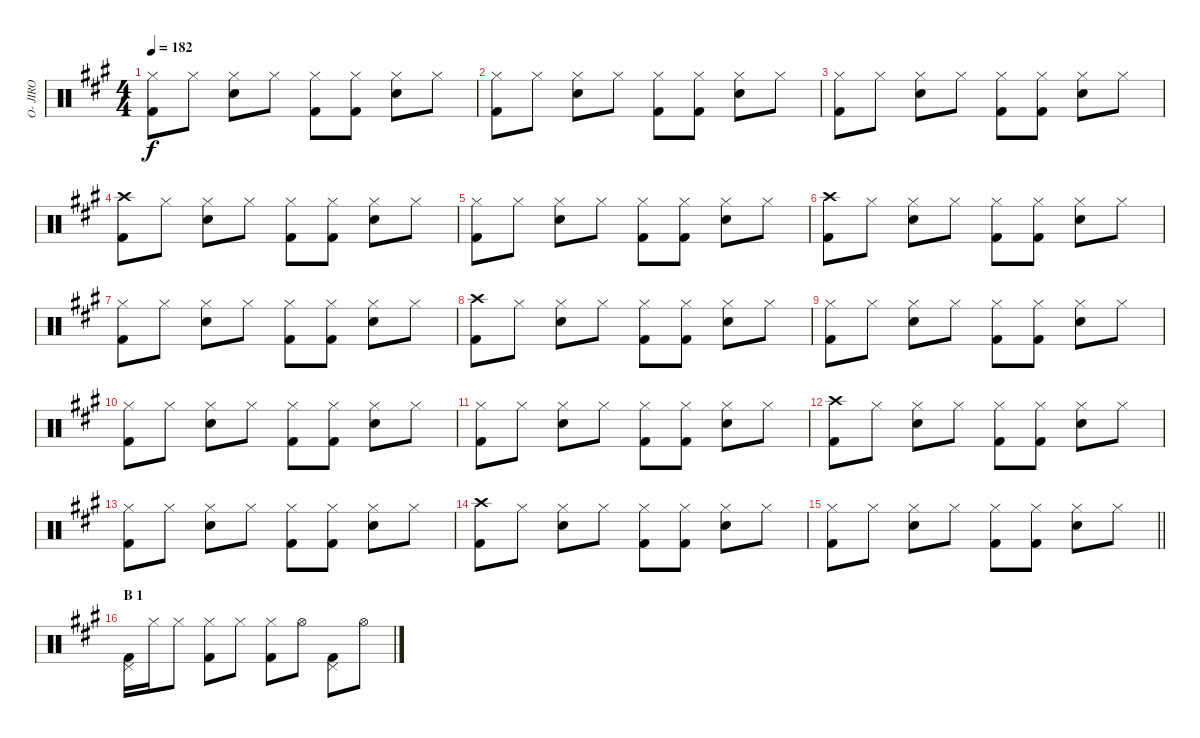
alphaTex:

\track ("O- JIRO" "O- JIRO") {instrument percussion}
\staff {score}
\articulation defaults
\ts (4 4)
\tempo 182
\clef neutral
\ks a
("Hi-Hat (closed)" "Kick (hit) 2").8{dy f} "Hi-Hat (closed)".8 ("Hi-Hat (closed)" "Snare (hit) 2").8 "Hi-Hat (closed)".8 ("Hi-Hat (closed)" "Kick (hit) 2").8 ("Hi-Hat (closed)" "Kick (hit) 2").8 ("Hi-Hat (closed)" "Snare (hit) 2").8 "Hi-Hat (closed)".8 |
("Hi-Hat (closed)" "Kick (hit) 2").8 "Hi-Hat (closed)".8 ("Hi-Hat (closed)" "Snare (hit) 2").8 "Hi-Hat (closed)".8 ("Hi-Hat (closed)" "Kick (hit) 2").8 ("Hi-Hat (closed)" "Kick (hit) 2").8 ("Hi-Hat (closed)" "Snare (hit) 2").8 "Hi-Hat (closed)".8 |
("Hi-Hat (closed)" "Kick (hit) 2").8 "Hi-Hat (closed)".8 ("Hi-Hat (closed)" "Snare (hit) 2").8 "Hi-Hat (closed)".8 ("Hi-Hat (closed)" "Kick (hit) 2").8 ("Hi-Hat (closed)" "Kick (hit) 2").8 ("Hi-Hat (closed)" "Snare (hit) 2").8 "Hi-Hat (closed)".8 |
("Crash high (hit)" "Kick (hit) 2").8 "Hi-Hat (closed)".8 ("Hi-Hat (closed)" "Snare (hit) 2").8 "Hi-Hat (closed)".8 ("Hi-Hat (closed)" "Kick (hit) 2").8 ("Hi-Hat (closed)" "Kick (hit) 2").8 ("Hi-Hat (closed)" "Snare (hit) 2").8 "Hi-Hat (closed)".8 |
("Hi-Hat (closed)" "Kick (hit) 2").8 "Hi-Hat (closed)".8 ("Hi-Hat (closed)" "Snare (hit) 2").8 "Hi-Hat (closed)".8 ("Hi-Hat (closed)" "Kick (hit) 2").8 ("Hi-Hat (closed)" "Kick (hit) 2").8 ("Hi-Hat (closed)" "Snare (hit) 2").8 "Hi-Hat (closed)".8 |
("Crash high (hit)" "Kick (hit) 2").8 "Hi-Hat (closed)".8 ("Hi-Hat (closed)" "Snare (hit) 2").8 "Hi-Hat (closed)".8 ("Hi-Hat (closed)" "Kick (hit) 2").8 ("Hi-Hat (closed)" "Kick (hit) 2").8 ("Hi-Hat (closed)" "Snare (hit) 2").8 "Hi-Hat (closed)".8 |
("Hi-Hat (closed)" "Kick (hit) 2").8 "Hi-Hat (closed)".8 ("Hi-Hat (closed)" "Snare (hit) 2").8 "Hi-Hat (closed)".8 ("Hi-Hat (closed)" "Kick (hit) 2").8 ("Hi-Hat (closed)" "Kick (hit) 2").8 ("Hi-Hat (closed)" "Snare (hit) 2").8 "Hi-Hat (closed)".8 |
("Crash high (hit)" "Kick (hit) 2").8 "Hi-Hat (closed)".8 ("Hi-Hat (closed)" "Snare (hit) 2").8 "Hi-Hat (closed)".8 ("Hi-Hat (closed)" "Kick (hit) 2").8 ("Hi-Hat (closed)" "Kick (hit) 2").8 ("Hi-Hat (closed)" "Snare (hit) 2").8 "Hi-Hat (closed)".8 |
("Hi-Hat (closed)" "Kick (hit) 2").8 "Hi-Hat (closed)".8 ("Hi-Hat (closed)" "Snare (hit) 2").8 "Hi-Hat (closed)".8 ("Hi-Hat (closed)" "Kick (hit) 2").8 ("Hi-Hat (closed)" "Kick (hit) 2").8 ("Hi-Hat (closed)" "Snare (hit) 2").8 "Hi-Hat (closed)".8 |
("Hi-Hat (closed)" "Kick (hit) 2").8 "Hi-Hat (closed)".8 ("Hi-Hat (closed)" "Snare (hit) 2").8 "Hi-Hat (closed)".8 ("Hi-Hat (closed)" "Kick (hit) 2").8 ("Hi-Hat (closed)" "Kick (hit) 2").8 ("Hi-Hat (closed)" "Snare (hit) 2").8 "Hi-Hat (closed)".8 |
("Hi-Hat (closed)" "Kick (hit) 2").8 "Hi-Hat (closed)".8 ("Hi-Hat (closed)" "Snare (hit) 2").8 "Hi-Hat (closed)".8 ("Hi-Hat (closed)" "Kick (hit) 2").8 ("Hi-Hat (closed)" "Kick (hit) 2").8 ("Hi-Hat (closed)" "Snare (hit) 2").8 "Hi-Hat (closed)".8 |
("Crash high (hit)" "Kick (hit) 2").8 "Hi-Hat (closed)".8 ("Hi-Hat (closed)" "Snare (hit) 2").8 "Hi-Hat (closed)".8 ("Hi-Hat (closed)" "Kick (hit) 2").8 ("Hi-Hat (closed)" "Kick (hit) 2").8 ("Hi-Hat (closed)" "Snare (hit) 2").8 "Hi-Hat (closed)".8 |
("Hi-Hat (closed)" "Kick (hit) 2").8 "Hi-Hat (closed)".8 ("Hi-Hat (closed)" "Snare (hit) 2").8 "Hi-Hat (closed)".8 ("Hi-Hat (closed)" "Kick (hit) 2").8 ("Hi-Hat (closed)" "Kick (hit) 2").8 ("Hi-Hat (closed)" "Snare (hit) 2").8 "Hi-Hat (closed)".8 |
("Crash high (hit)" "Kick (hit) 2").8 "Hi-Hat (closed)".8 ("Hi-Hat (closed)" "Snare (hit) 2").8 "Hi-Hat (closed)".8 ("Hi-Hat (closed)" "Kick (hit) 2").8 ("Hi-Hat (closed)" "Kick (hit) 2").8 ("Hi-Hat (closed)" "Snare (hit) 2").8 "Hi-Hat (closed)".8 |
\barLineRight lightlight
("Hi-Hat (closed)" "Kick (hit) 2").8 "Hi-Hat (closed)".8 ("Hi-Hat (closed)" "Snare (hit) 2").8 "Hi-Hat (closed)".8 ("Hi-Hat (closed)" "Kick (hit) 2").8 ("Hi-Hat (closed)" "Kick (hit) 2").8 ("Hi-Hat (closed)" "Snare (hit) 2").8 "Hi-Hat (closed)".8 |
\section ("" "B 1")
("Pedal Hi-Hat (hit)" "Kick (hit) 2").16 "Hi-Hat (closed)".16 "Hi-Hat (closed)".8 ("Hi-Hat (closed)" "Kick (hit) 2").8 "Hi-Hat (closed)".8 ("Hi-Hat (closed)" "Kick (hit) 2").8 "Hi-Hat (open)".8 ("Pedal Hi-Hat (hit)" "Kick (hit) 2").8 "Hi-Hat (open)".8
